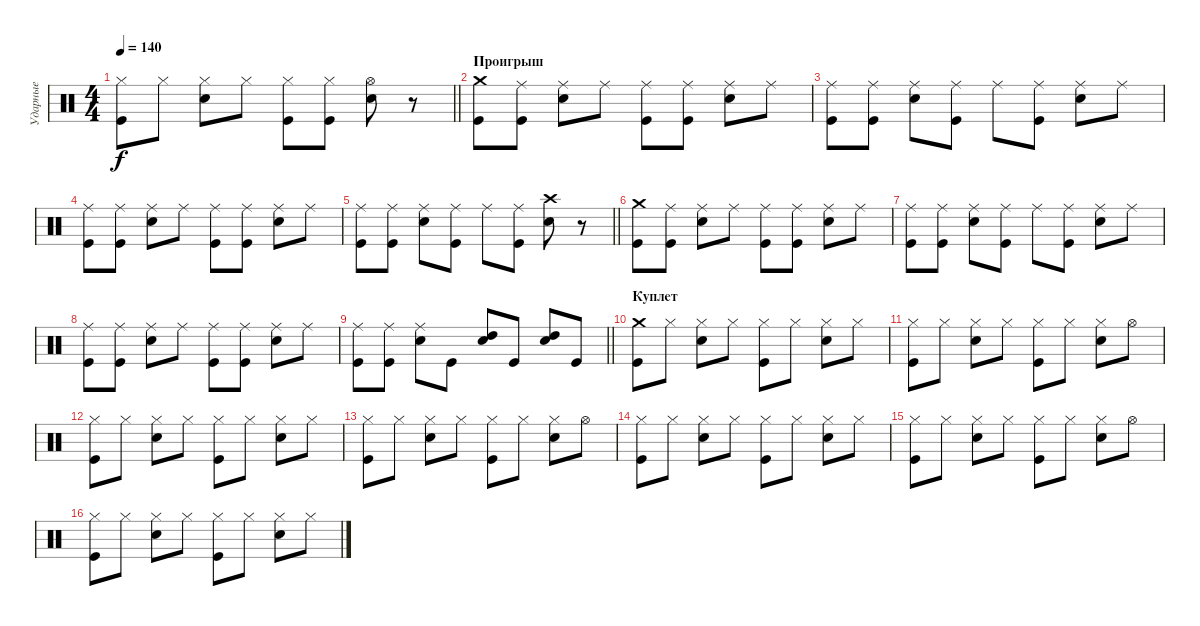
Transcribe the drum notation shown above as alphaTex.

\track ("Ударные" "Ударные") {instrument percussion}
\staff {score}
\articulation defaults
\ts (4 4)
\tempo 140
\clef neutral
\barLineRight lightlight
\ks c
("Hi-Hat (closed)" "Kick (hit)").8{dy f} "Hi-Hat (closed)".8 ("Hi-Hat (closed)" "Electric Snare (hit)").8 "Hi-Hat (closed)".8 ("Hi-Hat (closed)" "Kick (hit)").8 ("Hi-Hat (closed)" "Kick (hit)").8 ("Hi-Hat (open)" "Electric Snare (hit)").8 r.8 |
\section ("" "Проигрыш")
("Crash medium (hit)" "Kick (hit)").8 ("Ride (middle)" "Kick (hit)").8 ("Ride (middle)" "Electric Snare (hit)").8 "Ride (middle)".8 ("Ride (middle)" "Kick (hit)").8 ("Ride (middle)" "Kick (hit)").8 ("Ride (middle)" "Electric Snare (hit)").8 "Ride (middle)".8 |
("Ride (middle)" "Kick (hit)").8 ("Ride (middle)" "Kick (hit)").8 ("Ride (middle)" "Electric Snare (hit)").8 ("Ride (middle)" "Kick (hit)").8 "Ride (middle)".8 ("Ride (middle)" "Kick (hit)").8 ("Ride (middle)" "Electric Snare (hit)").8 "Ride (middle)".8 |
("Ride (middle)" "Kick (hit)").8 ("Ride (middle)" "Kick (hit)").8 ("Ride (middle)" "Electric Snare (hit)").8 "Ride (middle)".8 ("Ride (middle)" "Kick (hit)").8 ("Ride (middle)" "Kick (hit)").8 ("Ride (middle)" "Electric Snare (hit)").8 "Ride (middle)".8 |
\barLineRight lightlight
("Ride (middle)" "Kick (hit)").8 ("Ride (middle)" "Kick (hit)").8 ("Ride (middle)" "Electric Snare (hit)").8 ("Ride (middle)" "Kick (hit)").8 "Ride (middle)".8 ("Ride (middle)" "Kick (hit)").8 ("Crash high (hit)" "Electric Snare (hit)").8 r.8 |
("Crash medium (hit)" "Kick (hit)").8 ("Ride (middle)" "Kick (hit)").8 ("Ride (middle)" "Electric Snare (hit)").8 "Ride (middle)".8 ("Ride (middle)" "Kick (hit)").8 ("Ride (middle)" "Kick (hit)").8 ("Ride (middle)" "Electric Snare (hit)").8 "Ride (middle)".8 |
("Ride (middle)" "Kick (hit)").8 ("Ride (middle)" "Kick (hit)").8 ("Ride (middle)" "Electric Snare (hit)").8 ("Ride (middle)" "Kick (hit)").8 "Ride (middle)".8 ("Ride (middle)" "Kick (hit)").8 ("Ride (middle)" "Electric Snare (hit)").8 "Ride (middle)".8 |
("Ride (middle)" "Kick (hit)").8 ("Ride (middle)" "Kick (hit)").8 ("Ride (middle)" "Electric Snare (hit)").8 "Ride (middle)".8 ("Ride (middle)" "Kick (hit)").8 ("Ride (middle)" "Kick (hit)").8 ("Ride (middle)" "Electric Snare (hit)").8 "Ride (middle)".8 |
\barLineRight lightlight
("Ride (middle)" "Kick (hit)").8 ("Ride (middle)" "Kick (hit)").8 ("Ride (middle)" "Electric Snare (hit)").8 "Kick (hit)".8 ("High Tom (hit)" "Electric Snare (hit)").8 "Kick (hit)".8 ("High Tom (hit)" "Electric Snare (hit)").8 "Kick (hit)".8 |
\section ("" "Куплет")
("Crash medium (hit)" "Kick (hit)").8 "Hi-Hat (closed)".8 ("Hi-Hat (closed)" "Electric Snare (hit)").8 "Hi-Hat (closed)".8 ("Hi-Hat (closed)" "Kick (hit)").8 "Hi-Hat (closed)".8 ("Hi-Hat (closed)" "Electric Snare (hit)").8 "Hi-Hat (closed)".8 |
("Hi-Hat (closed)" "Kick (hit)").8 "Hi-Hat (closed)".8 ("Hi-Hat (closed)" "Electric Snare (hit)").8 "Hi-Hat (closed)".8 ("Hi-Hat (closed)" "Kick (hit)").8 "Hi-Hat (closed)".8 ("Hi-Hat (closed)" "Electric Snare (hit)").8 "Hi-Hat (open)".8 |
("Hi-Hat (closed)" "Kick (hit)").8 "Hi-Hat (closed)".8 ("Hi-Hat (closed)" "Electric Snare (hit)").8 "Hi-Hat (closed)".8 ("Hi-Hat (closed)" "Kick (hit)").8 "Hi-Hat (closed)".8 ("Hi-Hat (closed)" "Electric Snare (hit)").8 "Hi-Hat (closed)".8 |
("Hi-Hat (closed)" "Kick (hit)").8 "Hi-Hat (closed)".8 ("Hi-Hat (closed)" "Electric Snare (hit)").8 "Hi-Hat (closed)".8 ("Hi-Hat (closed)" "Kick (hit)").8 "Hi-Hat (closed)".8 ("Hi-Hat (closed)" "Electric Snare (hit)").8 "Hi-Hat (open)".8 |
("Hi-Hat (closed)" "Kick (hit)").8 "Hi-Hat (closed)".8 ("Hi-Hat (closed)" "Electric Snare (hit)").8 "Hi-Hat (closed)".8 ("Hi-Hat (closed)" "Kick (hit)").8 "Hi-Hat (closed)".8 ("Hi-Hat (closed)" "Electric Snare (hit)").8 "Hi-Hat (closed)".8 |
("Hi-Hat (closed)" "Kick (hit)").8 "Hi-Hat (closed)".8 ("Hi-Hat (closed)" "Electric Snare (hit)").8 "Hi-Hat (closed)".8 ("Hi-Hat (closed)" "Kick (hit)").8 "Hi-Hat (closed)".8 ("Hi-Hat (closed)" "Electric Snare (hit)").8 "Hi-Hat (open)".8 |
("Hi-Hat (closed)" "Kick (hit)").8 "Hi-Hat (closed)".8 ("Hi-Hat (closed)" "Electric Snare (hit)").8 "Hi-Hat (closed)".8 ("Hi-Hat (closed)" "Kick (hit)").8 "Hi-Hat (closed)".8 ("Hi-Hat (closed)" "Electric Snare (hit)").8 "Hi-Hat (closed)".8
